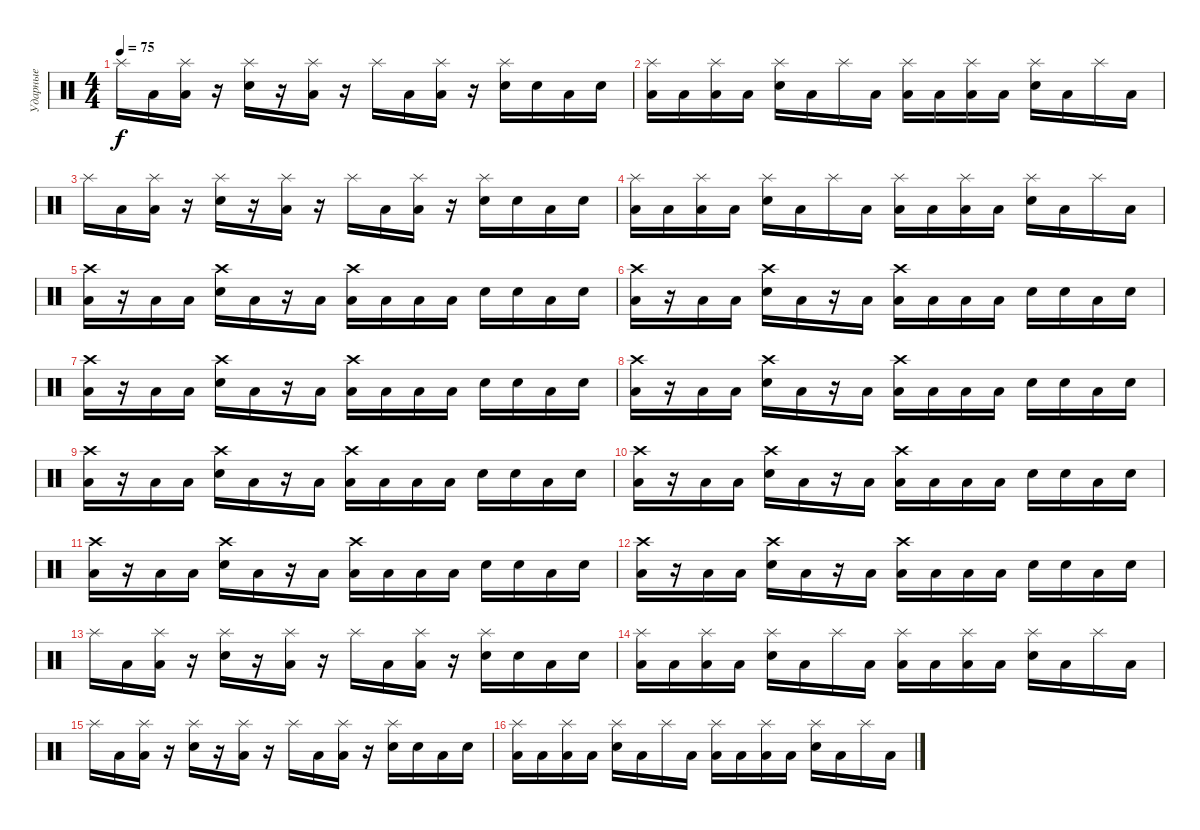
\track ("Ударные" "Ударные") {instrument percussion}
\staff {score}
\articulation defaults
\ts (4 4)
\tempo 75
\clef neutral
\ks c "Splash (hit)".16{dy f} "Low Floor Tom (hit)".16
("Splash (hit)" "Low Floor Tom (hit)").16 r.16 ("Splash (hit)" "Electric Snare (hit)").16 r.16 ("Splash (hit)" "Low Floor Tom (hit)").16 r.16 "Splash (hit)".16 "Low Floor Tom (hit)".16 ("Splash (hit)" "Low Floor Tom (hit)").16 r.16 ("Splash (hit)" "Electric Snare (hit)").16 "Electric Snare (hit)".16 "Low Floor Tom (hit)".16 "Electric Snare (hit)".16 |
("Splash (hit)" "Low Floor Tom (hit)").16 "Low Floor Tom (hit)".16 ("Splash (hit)" "Low Floor Tom (hit)").16 "Low Floor Tom (hit)".16 ("Splash (hit)" "Electric Snare (hit)").16 "Low Floor Tom (hit)".16 "Splash (hit)".16 "Low Floor Tom (hit)".16 ("Splash (hit)" "Low Floor Tom (hit)").16 "Low Floor Tom (hit)".16 ("Splash (hit)" "Low Floor Tom (hit)").16 "Low Floor Tom (hit)".16 ("Splash (hit)" "Electric Snare (hit)").16 "Low Floor Tom (hit)".16 "Splash (hit)".16 "Low Floor Tom (hit)".16 |
"Splash (hit)".16 "Low Floor Tom (hit)".16 ("Splash (hit)" "Low Floor Tom (hit)").16 r.16 ("Splash (hit)" "Electric Snare (hit)").16 r.16 ("Splash (hit)" "Low Floor Tom (hit)").16 r.16 "Splash (hit)".16 "Low Floor Tom (hit)".16 ("Splash (hit)" "Low Floor Tom (hit)").16 r.16 ("Splash (hit)" "Electric Snare (hit)").16 "Electric Snare (hit)".16 "Low Floor Tom (hit)".16 "Electric Snare (hit)".16 |
("Splash (hit)" "Low Floor Tom (hit)").16 "Low Floor Tom (hit)".16 ("Splash (hit)" "Low Floor Tom (hit)").16 "Low Floor Tom (hit)".16 ("Splash (hit)" "Electric Snare (hit)").16 "Low Floor Tom (hit)".16 "Splash (hit)".16 "Low Floor Tom (hit)".16 ("Splash (hit)" "Low Floor Tom (hit)").16 "Low Floor Tom (hit)".16 ("Splash (hit)" "Low Floor Tom (hit)").16 "Low Floor Tom (hit)".16 ("Splash (hit)" "Electric Snare (hit)").16 "Low Floor Tom (hit)".16 "Splash (hit)".16 "Low Floor Tom (hit)".16 |
("Crash high (hit)" "Low Floor Tom (hit)").16 r.16 "Low Floor Tom (hit)".16 "Low Floor Tom (hit)".16 ("Crash high (hit)" "Electric Snare (hit)").16 "Low Floor Tom (hit)".16 r.16 "Low Floor Tom (hit)".16 ("Crash high (hit)" "Low Floor Tom (hit)").16 "Low Floor Tom (hit)".16 "Low Floor Tom (hit)".16 "Low Floor Tom (hit)".16 "Electric Snare (hit)".16 "Electric Snare (hit)".16 "Low Floor Tom (hit)".16 "Electric Snare (hit)".16 |
("Crash high (hit)" "Low Floor Tom (hit)").16 r.16 "Low Floor Tom (hit)".16 "Low Floor Tom (hit)".16 ("Crash high (hit)" "Electric Snare (hit)").16 "Low Floor Tom (hit)".16 r.16 "Low Floor Tom (hit)".16 ("Crash high (hit)" "Low Floor Tom (hit)").16 "Low Floor Tom (hit)".16 "Low Floor Tom (hit)".16 "Low Floor Tom (hit)".16 "Electric Snare (hit)".16 "Electric Snare (hit)".16 "Low Floor Tom (hit)".16 "Electric Snare (hit)".16 |
("Crash high (hit)" "Low Floor Tom (hit)").16 r.16 "Low Floor Tom (hit)".16 "Low Floor Tom (hit)".16 ("Crash high (hit)" "Electric Snare (hit)").16 "Low Floor Tom (hit)".16 r.16 "Low Floor Tom (hit)".16 ("Crash high (hit)" "Low Floor Tom (hit)").16 "Low Floor Tom (hit)".16 "Low Floor Tom (hit)".16 "Low Floor Tom (hit)".16 "Electric Snare (hit)".16 "Electric Snare (hit)".16 "Low Floor Tom (hit)".16 "Electric Snare (hit)".16 |
("Crash high (hit)" "Low Floor Tom (hit)").16 r.16 "Low Floor Tom (hit)".16 "Low Floor Tom (hit)".16 ("Crash high (hit)" "Electric Snare (hit)").16 "Low Floor Tom (hit)".16 r.16 "Low Floor Tom (hit)".16 ("Crash high (hit)" "Low Floor Tom (hit)").16 "Low Floor Tom (hit)".16 "Low Floor Tom (hit)".16 "Low Floor Tom (hit)".16 "Electric Snare (hit)".16 "Electric Snare (hit)".16 "Low Floor Tom (hit)".16 "Electric Snare (hit)".16 |
("Crash high (hit)" "Low Floor Tom (hit)").16 r.16 "Low Floor Tom (hit)".16 "Low Floor Tom (hit)".16 ("Crash high (hit)" "Electric Snare (hit)").16 "Low Floor Tom (hit)".16 r.16 "Low Floor Tom (hit)".16 ("Crash high (hit)" "Low Floor Tom (hit)").16 "Low Floor Tom (hit)".16 "Low Floor Tom (hit)".16 "Low Floor Tom (hit)".16 "Electric Snare (hit)".16 "Electric Snare (hit)".16 "Low Floor Tom (hit)".16 "Electric Snare (hit)".16 |
("Crash high (hit)" "Low Floor Tom (hit)").16 r.16 "Low Floor Tom (hit)".16 "Low Floor Tom (hit)".16 ("Crash high (hit)" "Electric Snare (hit)").16 "Low Floor Tom (hit)".16 r.16 "Low Floor Tom (hit)".16 ("Crash high (hit)" "Low Floor Tom (hit)").16 "Low Floor Tom (hit)".16 "Low Floor Tom (hit)".16 "Low Floor Tom (hit)".16 "Electric Snare (hit)".16 "Electric Snare (hit)".16 "Low Floor Tom (hit)".16 "Electric Snare (hit)".16 |
("Crash high (hit)" "Low Floor Tom (hit)").16 r.16 "Low Floor Tom (hit)".16 "Low Floor Tom (hit)".16 ("Crash high (hit)" "Electric Snare (hit)").16 "Low Floor Tom (hit)".16 r.16 "Low Floor Tom (hit)".16 ("Crash high (hit)" "Low Floor Tom (hit)").16 "Low Floor Tom (hit)".16 "Low Floor Tom (hit)".16 "Low Floor Tom (hit)".16 "Electric Snare (hit)".16 "Electric Snare (hit)".16 "Low Floor Tom (hit)".16 "Electric Snare (hit)".16 |
("Crash high (hit)" "Low Floor Tom (hit)").16 r.16 "Low Floor Tom (hit)".16 "Low Floor Tom (hit)".16 ("Crash high (hit)" "Electric Snare (hit)").16 "Low Floor Tom (hit)".16 r.16 "Low Floor Tom (hit)".16 ("Crash high (hit)" "Low Floor Tom (hit)").16 "Low Floor Tom (hit)".16 "Low Floor Tom (hit)".16 "Low Floor Tom (hit)".16 "Electric Snare (hit)".16 "Electric Snare (hit)".16 "Low Floor Tom (hit)".16 "Electric Snare (hit)".16 |
"Splash (hit)".16 "Low Floor Tom (hit)".16 ("Splash (hit)" "Low Floor Tom (hit)").16 r.16 ("Splash (hit)" "Electric Snare (hit)").16 r.16 ("Splash (hit)" "Low Floor Tom (hit)").16 r.16 "Splash (hit)".16 "Low Floor Tom (hit)".16 ("Splash (hit)" "Low Floor Tom (hit)").16 r.16 ("Splash (hit)" "Electric Snare (hit)").16 "Electric Snare (hit)".16 "Low Floor Tom (hit)".16 "Electric Snare (hit)".16 |
("Splash (hit)" "Low Floor Tom (hit)").16 "Low Floor Tom (hit)".16 ("Splash (hit)" "Low Floor Tom (hit)").16 "Low Floor Tom (hit)".16 ("Splash (hit)" "Electric Snare (hit)").16 "Low Floor Tom (hit)".16 "Splash (hit)".16 "Low Floor Tom (hit)".16 ("Splash (hit)" "Low Floor Tom (hit)").16 "Low Floor Tom (hit)".16 ("Splash (hit)" "Low Floor Tom (hit)").16 "Low Floor Tom (hit)".16 ("Splash (hit)" "Electric Snare (hit)").16 "Low Floor Tom (hit)".16 "Splash (hit)".16 "Low Floor Tom (hit)".16 |
"Splash (hit)".16 "Low Floor Tom (hit)".16 ("Splash (hit)" "Low Floor Tom (hit)").16 r.16 ("Splash (hit)" "Electric Snare (hit)").16 r.16 ("Splash (hit)" "Low Floor Tom (hit)").16 r.16 "Splash (hit)".16 "Low Floor Tom (hit)".16 ("Splash (hit)" "Low Floor Tom (hit)").16 r.16 ("Splash (hit)" "Electric Snare (hit)").16 "Electric Snare (hit)".16 "Low Floor Tom (hit)".16 "Electric Snare (hit)".16 |
("Splash (hit)" "Low Floor Tom (hit)").16 "Low Floor Tom (hit)".16 ("Splash (hit)" "Low Floor Tom (hit)").16 "Low Floor Tom (hit)".16 ("Splash (hit)" "Electric Snare (hit)").16 "Low Floor Tom (hit)".16 "Splash (hit)".16 "Low Floor Tom (hit)".16 ("Splash (hit)" "Low Floor Tom (hit)").16 "Low Floor Tom (hit)".16 ("Splash (hit)" "Low Floor Tom (hit)").16 "Low Floor Tom (hit)".16 ("Splash (hit)" "Electric Snare (hit)").16 "Low Floor Tom (hit)".16 "Splash (hit)".16 "Low Floor Tom (hit)".16
